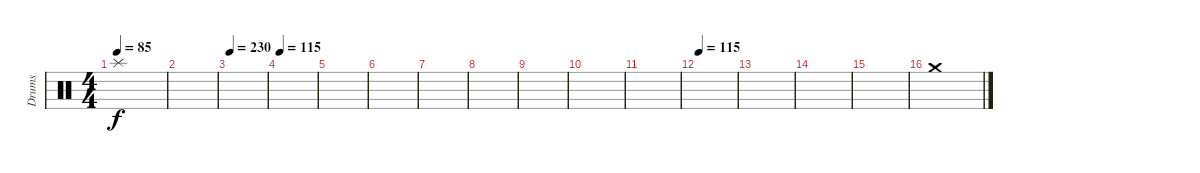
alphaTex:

\track ("Drums" "Drums") {instrument percussion}
\staff {score}
\articulation defaults
\ts (4 4)
\tempo 85
\clef neutral
\ks c "Splash (hit)".1{dy f}
|
|
\tempo 230
|
\tempo 115
|
|
|
|
|
|
|
|
\tempo 115
|
|
|
|
"Crash medium (hit)".1
